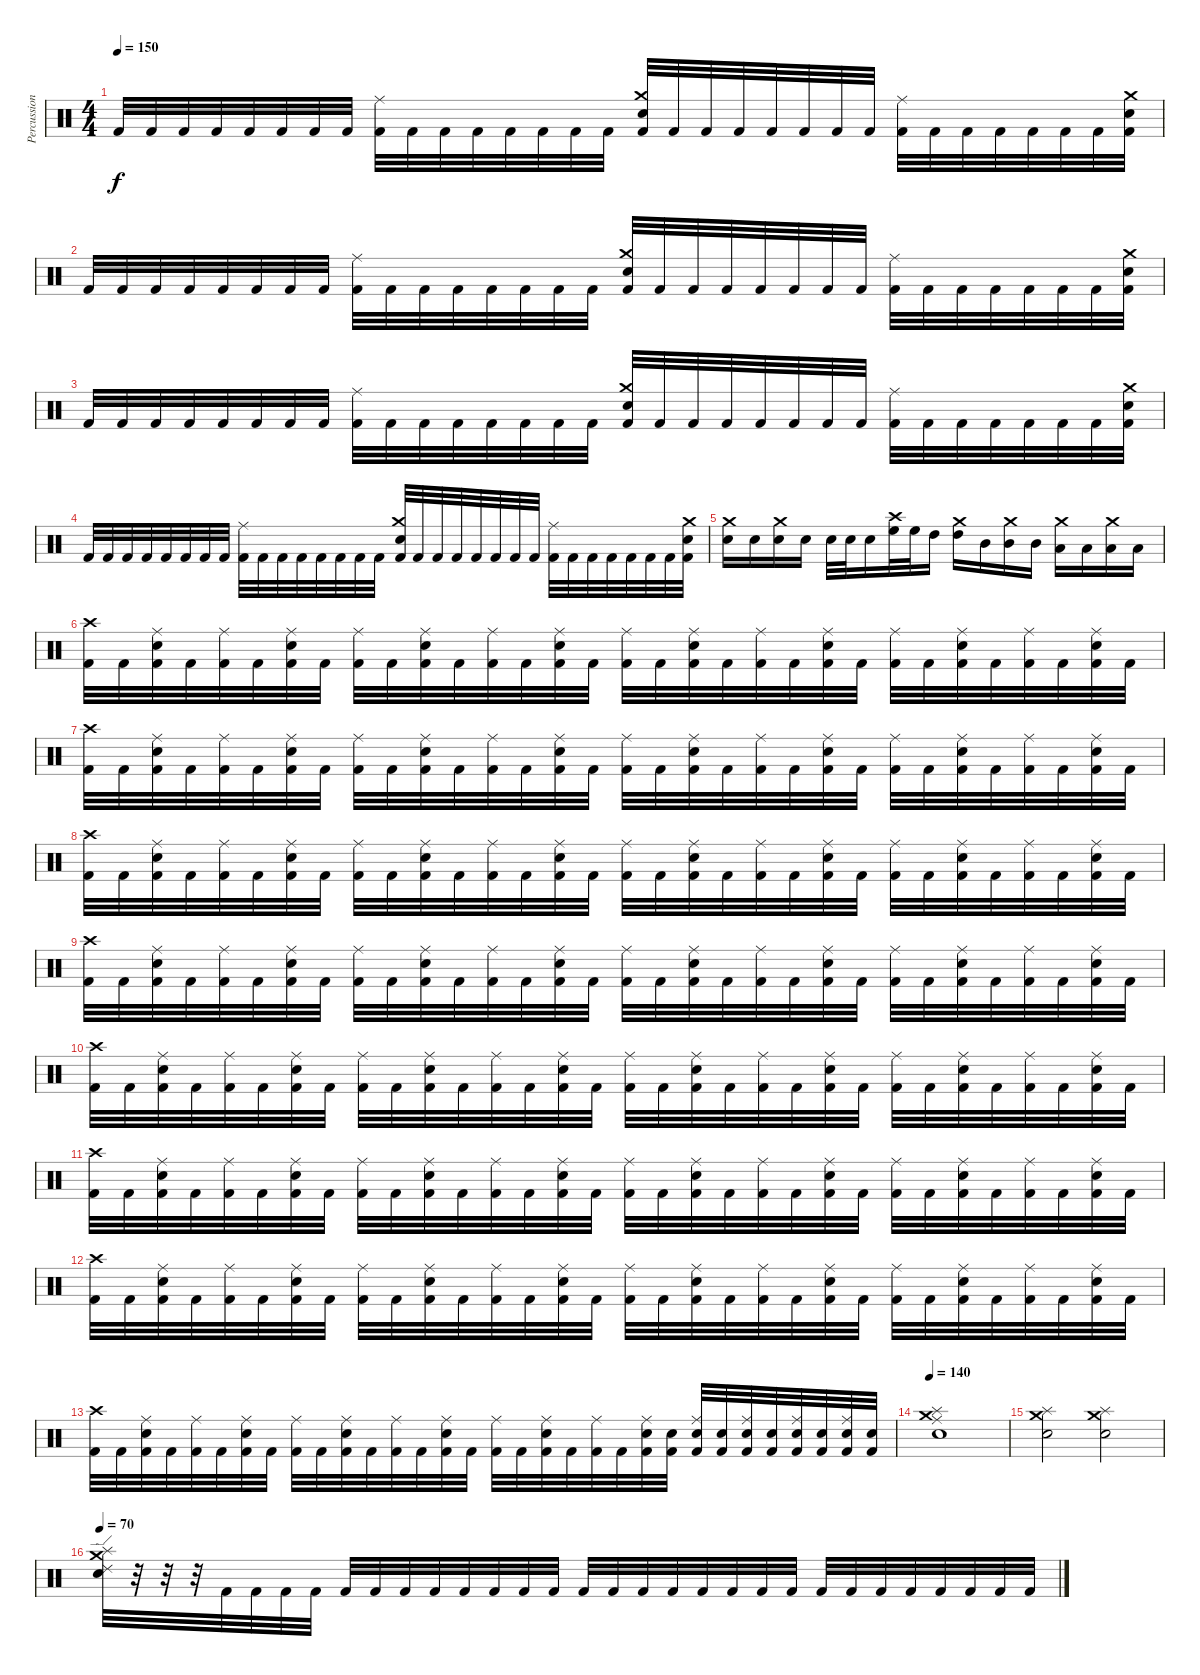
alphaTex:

\track ("Percussions" "Percussion") {instrument percussion}
\staff {score}
\articulation defaults
\ts (4 4)
\tempo 150
\clef neutral
\ks c "Kick (hit) 2".32{dy f} "Kick (hit) 2".32 "Kick (hit) 2".32 "Kick (hit) 2".32 "Kick (hit) 2".32 "Kick (hit) 2".32 "Kick (hit) 2".32 "Kick (hit) 2".32
("Ride (middle)" "Kick (hit) 2").32 "Kick (hit) 2".32 "Kick (hit) 2".32 "Kick (hit) 2".32 "Kick (hit) 2".32 "Kick (hit) 2".32 "Kick (hit) 2".32 "Kick (hit) 2".32 ("Crash medium (hit)" "Electric Snare (hit)" "Kick (hit) 2").32 "Kick (hit) 2".32 "Kick (hit) 2".32 "Kick (hit) 2".32 "Kick (hit) 2".32 "Kick (hit) 2".32 "Kick (hit) 2".32 "Kick (hit) 2".32 ("Ride (middle)" "Kick (hit) 2").32 "Kick (hit) 2".32 "Kick (hit) 2".32 "Kick (hit) 2".32 "Kick (hit) 2".32 "Kick (hit) 2".32 "Kick (hit) 2".32 ("Crash medium (hit)" "Electric Snare (hit)" "Kick (hit) 2").32 |
"Kick (hit) 2".32 "Kick (hit) 2".32 "Kick (hit) 2".32 "Kick (hit) 2".32 "Kick (hit) 2".32 "Kick (hit) 2".32 "Kick (hit) 2".32 "Kick (hit) 2".32 ("Ride (middle)" "Kick (hit) 2").32 "Kick (hit) 2".32 "Kick (hit) 2".32 "Kick (hit) 2".32 "Kick (hit) 2".32 "Kick (hit) 2".32 "Kick (hit) 2".32 "Kick (hit) 2".32 ("Crash medium (hit)" "Electric Snare (hit)" "Kick (hit) 2").32 "Kick (hit) 2".32 "Kick (hit) 2".32 "Kick (hit) 2".32 "Kick (hit) 2".32 "Kick (hit) 2".32 "Kick (hit) 2".32 "Kick (hit) 2".32 ("Ride (middle)" "Kick (hit) 2").32 "Kick (hit) 2".32 "Kick (hit) 2".32 "Kick (hit) 2".32 "Kick (hit) 2".32 "Kick (hit) 2".32 "Kick (hit) 2".32 ("Crash medium (hit)" "Electric Snare (hit)" "Kick (hit) 2").32 |
"Kick (hit) 2".32 "Kick (hit) 2".32 "Kick (hit) 2".32 "Kick (hit) 2".32 "Kick (hit) 2".32 "Kick (hit) 2".32 "Kick (hit) 2".32 "Kick (hit) 2".32 ("Ride (middle)" "Kick (hit) 2").32 "Kick (hit) 2".32 "Kick (hit) 2".32 "Kick (hit) 2".32 "Kick (hit) 2".32 "Kick (hit) 2".32 "Kick (hit) 2".32 "Kick (hit) 2".32 ("Crash medium (hit)" "Electric Snare (hit)" "Kick (hit) 2").32 "Kick (hit) 2".32 "Kick (hit) 2".32 "Kick (hit) 2".32 "Kick (hit) 2".32 "Kick (hit) 2".32 "Kick (hit) 2".32 "Kick (hit) 2".32 ("Ride (middle)" "Kick (hit) 2").32 "Kick (hit) 2".32 "Kick (hit) 2".32 "Kick (hit) 2".32 "Kick (hit) 2".32 "Kick (hit) 2".32 "Kick (hit) 2".32 ("Crash medium (hit)" "Electric Snare (hit)" "Kick (hit) 2").32 |
"Kick (hit) 2".32 "Kick (hit) 2".32 "Kick (hit) 2".32 "Kick (hit) 2".32 "Kick (hit) 2".32 "Kick (hit) 2".32 "Kick (hit) 2".32 "Kick (hit) 2".32 ("Ride (middle)" "Kick (hit) 2").32 "Kick (hit) 2".32 "Kick (hit) 2".32 "Kick (hit) 2".32 "Kick (hit) 2".32 "Kick (hit) 2".32 "Kick (hit) 2".32 "Kick (hit) 2".32 ("Crash medium (hit)" "Electric Snare (hit)" "Kick (hit) 2").32 "Kick (hit) 2".32 "Kick (hit) 2".32 "Kick (hit) 2".32 "Kick (hit) 2".32 "Kick (hit) 2".32 "Kick (hit) 2".32 "Kick (hit) 2".32 ("Ride (middle)" "Kick (hit) 2").32 "Kick (hit) 2".32 "Kick (hit) 2".32 "Kick (hit) 2".32 "Kick (hit) 2".32 "Kick (hit) 2".32 "Kick (hit) 2".32 ("Crash medium (hit)" "Electric Snare (hit)" "Kick (hit) 2").32 |
("Electric Snare (hit)" "Crash medium (hit)").16 "Electric Snare (hit)".16 ("Electric Snare (hit)" "Crash medium (hit)").16 "Electric Snare (hit)".16 "Electric Snare (hit)".32 "Electric Snare (hit)".32 "Electric Snare (hit)".16 ("High Floor Tom (hit)" "Crash high (hit)").32 "High Floor Tom (hit)".32 "High Tom (hit)".16 ("High Tom (hit)" "Crash medium (hit)").16 "Mid Tom (hit)".16 ("Mid Tom (hit)" "Crash medium (hit)").16 "Mid Tom (hit)".16 ("Low Tom (hit)" "Crash medium (hit)").16 "Low Tom (hit)".16 ("Low Tom (hit)" "Crash medium (hit)").16 "Low Tom (hit)".16 |
("Crash high (hit)" "Kick (hit) 2").32 "Kick (hit) 2".32 ("Ride (middle)" "Electric Snare (hit)" "Kick (hit) 2").32 "Kick (hit) 2".32 ("Ride (middle)" "Kick (hit) 2").32 "Kick (hit) 2".32 ("Ride (middle)" "Electric Snare (hit)" "Kick (hit) 2").32 "Kick (hit) 2".32 ("Ride (middle)" "Kick (hit) 2").32 "Kick (hit) 2".32 ("Ride (middle)" "Electric Snare (hit)" "Kick (hit) 2").32 "Kick (hit) 2".32 ("Ride (middle)" "Kick (hit) 2").32 "Kick (hit) 2".32 ("Ride (middle)" "Electric Snare (hit)" "Kick (hit) 2").32 "Kick (hit) 2".32 ("Ride (middle)" "Kick (hit) 2").32 "Kick (hit) 2".32 ("Ride (middle)" "Electric Snare (hit)" "Kick (hit) 2").32 "Kick (hit) 2".32 ("Ride (middle)" "Kick (hit) 2").32 "Kick (hit) 2".32 ("Ride (middle)" "Electric Snare (hit)" "Kick (hit) 2").32 "Kick (hit) 2".32 ("Ride (middle)" "Kick (hit) 2").32 "Kick (hit) 2".32 ("Ride (middle)" "Electric Snare (hit)" "Kick (hit) 2").32 "Kick (hit) 2".32 ("Ride (middle)" "Kick (hit) 2").32 "Kick (hit) 2".32 ("Ride (middle)" "Electric Snare (hit)" "Kick (hit) 2").32 "Kick (hit) 2".32 |
("Crash high (hit)" "Kick (hit) 2").32 "Kick (hit) 2".32 ("Ride (middle)" "Electric Snare (hit)" "Kick (hit) 2").32 "Kick (hit) 2".32 ("Ride (middle)" "Kick (hit) 2").32 "Kick (hit) 2".32 ("Ride (middle)" "Electric Snare (hit)" "Kick (hit) 2").32 "Kick (hit) 2".32 ("Ride (middle)" "Kick (hit) 2").32 "Kick (hit) 2".32 ("Ride (middle)" "Electric Snare (hit)" "Kick (hit) 2").32 "Kick (hit) 2".32 ("Ride (middle)" "Kick (hit) 2").32 "Kick (hit) 2".32 ("Ride (middle)" "Electric Snare (hit)" "Kick (hit) 2").32 "Kick (hit) 2".32 ("Ride (middle)" "Kick (hit) 2").32 "Kick (hit) 2".32 ("Ride (middle)" "Electric Snare (hit)" "Kick (hit) 2").32 "Kick (hit) 2".32 ("Ride (middle)" "Kick (hit) 2").32 "Kick (hit) 2".32 ("Ride (middle)" "Electric Snare (hit)" "Kick (hit) 2").32 "Kick (hit) 2".32 ("Ride (middle)" "Kick (hit) 2").32 "Kick (hit) 2".32 ("Ride (middle)" "Electric Snare (hit)" "Kick (hit) 2").32 "Kick (hit) 2".32 ("Ride (middle)" "Kick (hit) 2").32 "Kick (hit) 2".32 ("Ride (middle)" "Electric Snare (hit)" "Kick (hit) 2").32 "Kick (hit) 2".32 |
("Crash high (hit)" "Kick (hit) 2").32 "Kick (hit) 2".32 ("Ride (middle)" "Electric Snare (hit)" "Kick (hit) 2").32 "Kick (hit) 2".32 ("Ride (middle)" "Kick (hit) 2").32 "Kick (hit) 2".32 ("Ride (middle)" "Electric Snare (hit)" "Kick (hit) 2").32 "Kick (hit) 2".32 ("Ride (middle)" "Kick (hit) 2").32 "Kick (hit) 2".32 ("Ride (middle)" "Electric Snare (hit)" "Kick (hit) 2").32 "Kick (hit) 2".32 ("Ride (middle)" "Kick (hit) 2").32 "Kick (hit) 2".32 ("Ride (middle)" "Electric Snare (hit)" "Kick (hit) 2").32 "Kick (hit) 2".32 ("Ride (middle)" "Kick (hit) 2").32 "Kick (hit) 2".32 ("Ride (middle)" "Electric Snare (hit)" "Kick (hit) 2").32 "Kick (hit) 2".32 ("Ride (middle)" "Kick (hit) 2").32 "Kick (hit) 2".32 ("Ride (middle)" "Electric Snare (hit)" "Kick (hit) 2").32 "Kick (hit) 2".32 ("Ride (middle)" "Kick (hit) 2").32 "Kick (hit) 2".32 ("Ride (middle)" "Electric Snare (hit)" "Kick (hit) 2").32 "Kick (hit) 2".32 ("Ride (middle)" "Kick (hit) 2").32 "Kick (hit) 2".32 ("Ride (middle)" "Electric Snare (hit)" "Kick (hit) 2").32 "Kick (hit) 2".32 |
("Crash high (hit)" "Kick (hit) 2").32 "Kick (hit) 2".32 ("Ride (middle)" "Electric Snare (hit)" "Kick (hit) 2").32 "Kick (hit) 2".32 ("Ride (middle)" "Kick (hit) 2").32 "Kick (hit) 2".32 ("Ride (middle)" "Electric Snare (hit)" "Kick (hit) 2").32 "Kick (hit) 2".32 ("Ride (middle)" "Kick (hit) 2").32 "Kick (hit) 2".32 ("Ride (middle)" "Electric Snare (hit)" "Kick (hit) 2").32 "Kick (hit) 2".32 ("Ride (middle)" "Kick (hit) 2").32 "Kick (hit) 2".32 ("Ride (middle)" "Electric Snare (hit)" "Kick (hit) 2").32 "Kick (hit) 2".32 ("Ride (middle)" "Kick (hit) 2").32 "Kick (hit) 2".32 ("Ride (middle)" "Electric Snare (hit)" "Kick (hit) 2").32 "Kick (hit) 2".32 ("Ride (middle)" "Kick (hit) 2").32 "Kick (hit) 2".32 ("Ride (middle)" "Electric Snare (hit)" "Kick (hit) 2").32 "Kick (hit) 2".32 ("Ride (middle)" "Kick (hit) 2").32 "Kick (hit) 2".32 ("Ride (middle)" "Electric Snare (hit)" "Kick (hit) 2").32 "Kick (hit) 2".32 ("Ride (middle)" "Kick (hit) 2").32 "Kick (hit) 2".32 ("Ride (middle)" "Electric Snare (hit)" "Kick (hit) 2").32 "Kick (hit) 2".32 |
("Crash high (hit)" "Kick (hit) 2").32 "Kick (hit) 2".32 ("Ride (middle)" "Electric Snare (hit)" "Kick (hit) 2").32 "Kick (hit) 2".32 ("Ride (middle)" "Kick (hit) 2").32 "Kick (hit) 2".32 ("Ride (middle)" "Electric Snare (hit)" "Kick (hit) 2").32 "Kick (hit) 2".32 ("Ride (middle)" "Kick (hit) 2").32 "Kick (hit) 2".32 ("Ride (middle)" "Electric Snare (hit)" "Kick (hit) 2").32 "Kick (hit) 2".32 ("Ride (middle)" "Kick (hit) 2").32 "Kick (hit) 2".32 ("Ride (middle)" "Electric Snare (hit)" "Kick (hit) 2").32 "Kick (hit) 2".32 ("Ride (middle)" "Kick (hit) 2").32 "Kick (hit) 2".32 ("Ride (middle)" "Electric Snare (hit)" "Kick (hit) 2").32 "Kick (hit) 2".32 ("Ride (middle)" "Kick (hit) 2").32 "Kick (hit) 2".32 ("Ride (middle)" "Electric Snare (hit)" "Kick (hit) 2").32 "Kick (hit) 2".32 ("Ride (middle)" "Kick (hit) 2").32 "Kick (hit) 2".32 ("Ride (middle)" "Electric Snare (hit)" "Kick (hit) 2").32 "Kick (hit) 2".32 ("Ride (middle)" "Kick (hit) 2").32 "Kick (hit) 2".32 ("Ride (middle)" "Electric Snare (hit)" "Kick (hit) 2").32 "Kick (hit) 2".32 |
("Crash high (hit)" "Kick (hit) 2").32 "Kick (hit) 2".32 ("Ride (middle)" "Electric Snare (hit)" "Kick (hit) 2").32 "Kick (hit) 2".32 ("Ride (middle)" "Kick (hit) 2").32 "Kick (hit) 2".32 ("Ride (middle)" "Electric Snare (hit)" "Kick (hit) 2").32 "Kick (hit) 2".32 ("Ride (middle)" "Kick (hit) 2").32 "Kick (hit) 2".32 ("Ride (middle)" "Electric Snare (hit)" "Kick (hit) 2").32 "Kick (hit) 2".32 ("Ride (middle)" "Kick (hit) 2").32 "Kick (hit) 2".32 ("Ride (middle)" "Electric Snare (hit)" "Kick (hit) 2").32 "Kick (hit) 2".32 ("Ride (middle)" "Kick (hit) 2").32 "Kick (hit) 2".32 ("Ride (middle)" "Electric Snare (hit)" "Kick (hit) 2").32 "Kick (hit) 2".32 ("Ride (middle)" "Kick (hit) 2").32 "Kick (hit) 2".32 ("Ride (middle)" "Electric Snare (hit)" "Kick (hit) 2").32 "Kick (hit) 2".32 ("Ride (middle)" "Kick (hit) 2").32 "Kick (hit) 2".32 ("Ride (middle)" "Electric Snare (hit)" "Kick (hit) 2").32 "Kick (hit) 2".32 ("Ride (middle)" "Kick (hit) 2").32 "Kick (hit) 2".32 ("Ride (middle)" "Electric Snare (hit)" "Kick (hit) 2").32 "Kick (hit) 2".32 |
("Crash high (hit)" "Kick (hit) 2").32 "Kick (hit) 2".32 ("Ride (middle)" "Electric Snare (hit)" "Kick (hit) 2").32 "Kick (hit) 2".32 ("Ride (middle)" "Kick (hit) 2").32 "Kick (hit) 2".32 ("Ride (middle)" "Electric Snare (hit)" "Kick (hit) 2").32 "Kick (hit) 2".32 ("Ride (middle)" "Kick (hit) 2").32 "Kick (hit) 2".32 ("Ride (middle)" "Electric Snare (hit)" "Kick (hit) 2").32 "Kick (hit) 2".32 ("Ride (middle)" "Kick (hit) 2").32 "Kick (hit) 2".32 ("Ride (middle)" "Electric Snare (hit)" "Kick (hit) 2").32 "Kick (hit) 2".32 ("Ride (middle)" "Kick (hit) 2").32 "Kick (hit) 2".32 ("Ride (middle)" "Electric Snare (hit)" "Kick (hit) 2").32 "Kick (hit) 2".32 ("Ride (middle)" "Kick (hit) 2").32 "Kick (hit) 2".32 ("Ride (middle)" "Electric Snare (hit)" "Kick (hit) 2").32 "Kick (hit) 2".32 ("Ride (middle)" "Kick (hit) 2").32 "Kick (hit) 2".32 ("Ride (middle)" "Electric Snare (hit)" "Kick (hit) 2").32 "Kick (hit) 2".32 ("Ride (middle)" "Kick (hit) 2").32 "Kick (hit) 2".32 ("Ride (middle)" "Electric Snare (hit)" "Kick (hit) 2").32 "Kick (hit) 2".32 |
("Crash high (hit)" "Kick (hit) 2").32 "Kick (hit) 2".32 ("Ride (middle)" "Electric Snare (hit)" "Kick (hit) 2").32 "Kick (hit) 2".32 ("Ride (middle)" "Kick (hit) 2").32 "Kick (hit) 2".32 ("Ride (middle)" "Electric Snare (hit)" "Kick (hit) 2").32 "Kick (hit) 2".32 ("Ride (middle)" "Kick (hit) 2").32 "Kick (hit) 2".32 ("Ride (middle)" "Electric Snare (hit)" "Kick (hit) 2").32 "Kick (hit) 2".32 ("Ride (middle)" "Kick (hit) 2").32 "Kick (hit) 2".32 ("Ride (middle)" "Electric Snare (hit)" "Kick (hit) 2").32 "Kick (hit) 2".32 ("Ride (middle)" "Kick (hit) 2").32 "Kick (hit) 2".32 ("Ride (middle)" "Electric Snare (hit)" "Kick (hit) 2").32 "Kick (hit) 2".32 ("Ride (middle)" "Kick (hit) 2").32 "Kick (hit) 2".32 ("Ride (middle)" "Electric Snare (hit)" "Kick (hit) 2").32 ("Electric Snare (hit)" "Kick (hit) 2").32 ("Ride (middle)" "Electric Snare (hit)" "Kick (hit) 2").32 ("Electric Snare (hit)" "Kick (hit) 2").32 ("Ride (middle)" "Electric Snare (hit)" "Kick (hit) 2").32 ("Electric Snare (hit)" "Kick (hit) 2").32 ("Ride (middle)" "Electric Snare (hit)" "Kick (hit) 2").32 ("Electric Snare (hit)" "Kick (hit) 2").32 ("Ride (middle)" "Electric Snare (hit)" "Kick (hit) 2").32 ("Electric Snare (hit)" "Kick (hit) 2").32 |
\tempo 140
("Splash (hit)" "Ride (middle)" "Crash medium (hit)" "Electric Snare (hit)").1 |
("Splash (hit)" "Crash medium (hit)" "Electric Snare (hit)").2 ("Crash medium (hit)" "Splash (hit)" "Electric Snare (hit)").2 |
\tempo 70
("Ride (edge) 2" "Crash medium (hit)" "Splash (hit)" "Electric Snare (hit)").32 r.32 r.32 r.32 "Kick (hit) 2".32 "Kick (hit) 2".32 "Kick (hit) 2".32 "Kick (hit) 2".32 "Kick (hit) 2".32 "Kick (hit) 2".32 "Kick (hit) 2".32 "Kick (hit) 2".32 "Kick (hit) 2".32 "Kick (hit) 2".32 "Kick (hit) 2".32 "Kick (hit) 2".32 "Kick (hit) 2".32 "Kick (hit) 2".32 "Kick (hit) 2".32 "Kick (hit) 2".32 "Kick (hit) 2".32 "Kick (hit) 2".32 "Kick (hit) 2".32 "Kick (hit) 2".32 "Kick (hit) 2".32 "Kick (hit) 2".32 "Kick (hit) 2".32 "Kick (hit) 2".32 "Kick (hit) 2".32 "Kick (hit) 2".32 "Kick (hit) 2".32 "Kick (hit) 2".32
